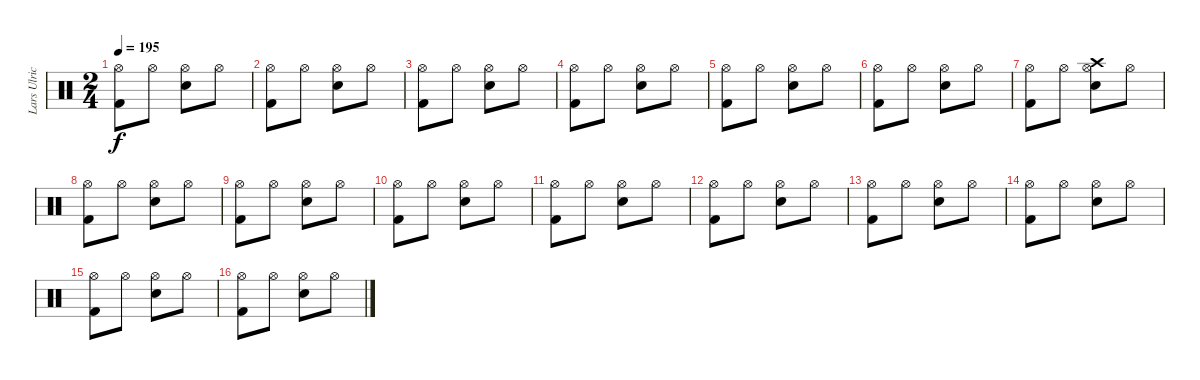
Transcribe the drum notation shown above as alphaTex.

\track ("Lars Ulrich" "Lars Ulric") {instrument percussion}
\staff {score}
\articulation defaults
\ts (2 4)
\tempo 195
\clef neutral
\ks c
("Kick (hit) 2" "Hi-Hat (open)").8{dy f} "Hi-Hat (open)".8 ("Snare (hit) 2" "Hi-Hat (open)").8 "Hi-Hat (open)".8 |
("Kick (hit) 2" "Hi-Hat (open)").8 "Hi-Hat (open)".8 ("Snare (hit) 2" "Hi-Hat (open)").8 "Hi-Hat (open)".8 |
("Kick (hit) 2" "Hi-Hat (open)").8 "Hi-Hat (open)".8 ("Snare (hit) 2" "Hi-Hat (open)").8 "Hi-Hat (open)".8 |
("Kick (hit) 2" "Hi-Hat (open)").8 "Hi-Hat (open)".8 ("Snare (hit) 2" "Hi-Hat (open)").8 "Hi-Hat (open)".8 |
("Kick (hit) 2" "Hi-Hat (open)").8 "Hi-Hat (open)".8 ("Snare (hit) 2" "Hi-Hat (open)").8 "Hi-Hat (open)".8 |
("Kick (hit) 2" "Hi-Hat (open)").8 "Hi-Hat (open)".8 ("Snare (hit) 2" "Hi-Hat (open)").8 "Hi-Hat (open)".8 |
("Kick (hit) 2" "Hi-Hat (open)").8 "Hi-Hat (open)".8 ("Snare (hit) 2" "Hi-Hat (open)" "Crash high (hit)").8 "Hi-Hat (open)".8 |
("Kick (hit) 2" "Hi-Hat (open)").8 "Hi-Hat (open)".8 ("Snare (hit) 2" "Hi-Hat (open)").8 "Hi-Hat (open)".8 |
("Kick (hit) 2" "Hi-Hat (open)").8 "Hi-Hat (open)".8 ("Snare (hit) 2" "Hi-Hat (open)").8 "Hi-Hat (open)".8 |
("Kick (hit) 2" "Hi-Hat (open)").8 "Hi-Hat (open)".8 ("Snare (hit) 2" "Hi-Hat (open)").8 "Hi-Hat (open)".8 |
("Kick (hit) 2" "Hi-Hat (open)").8 "Hi-Hat (open)".8 ("Snare (hit) 2" "Hi-Hat (open)").8 "Hi-Hat (open)".8 |
("Kick (hit) 2" "Hi-Hat (open)").8 "Hi-Hat (open)".8 ("Snare (hit) 2" "Hi-Hat (open)").8 "Hi-Hat (open)".8 |
("Kick (hit) 2" "Hi-Hat (open)").8 "Hi-Hat (open)".8 ("Snare (hit) 2" "Hi-Hat (open)").8 "Hi-Hat (open)".8 |
("Kick (hit) 2" "Hi-Hat (open)").8 "Hi-Hat (open)".8 ("Snare (hit) 2" "Hi-Hat (open)").8 "Hi-Hat (open)".8 |
("Kick (hit) 2" "Hi-Hat (open)").8 "Hi-Hat (open)".8 ("Snare (hit) 2" "Hi-Hat (open)").8 "Hi-Hat (open)".8 |
("Kick (hit) 2" "Hi-Hat (open)").8 "Hi-Hat (open)".8 ("Snare (hit) 2" "Hi-Hat (open)").8 "Hi-Hat (open)".8
